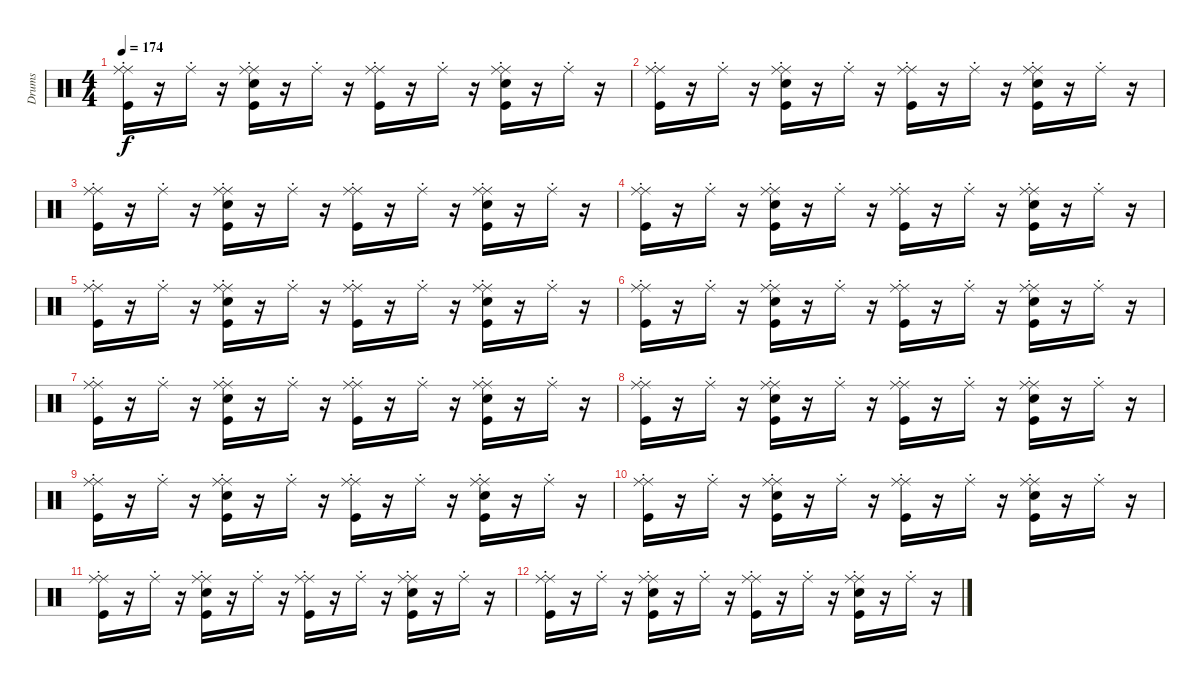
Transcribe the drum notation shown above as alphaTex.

\track ("Drums" "Drums") {instrument percussion}
\staff {score}
\articulation defaults
\ts (4 4)
\tempo 174
\clef neutral
\ks c
("Ride (middle)" "Kick (hit)" "Ride (choke)").16{dy f} r.16 "Ride (choke)".16 r.16 ("Ride (middle)" "Kick (hit)" "Snare (hit) 2" "Ride (choke)").16 r.16 "Ride (choke)".16 r.16 ("Ride (middle)" "Kick (hit)" "Ride (choke)").16 r.16 "Ride (choke)".16 r.16 ("Ride (middle)" "Kick (hit)" "Snare (hit) 2" "Ride (choke)").16 r.16 "Ride (choke)".16 r.16 |
("Ride (middle)" "Kick (hit)" "Ride (choke)").16 r.16 "Ride (choke)".16 r.16 ("Ride (middle)" "Kick (hit)" "Snare (hit) 2" "Ride (choke)").16 r.16 "Ride (choke)".16 r.16 ("Ride (middle)" "Kick (hit)" "Ride (choke)").16 r.16 "Ride (choke)".16 r.16 ("Ride (middle)" "Kick (hit)" "Snare (hit) 2" "Ride (choke)").16 r.16 "Ride (choke)".16 r.16 |
("Ride (middle)" "Kick (hit)" "Ride (choke)").16 r.16 "Ride (choke)".16 r.16 ("Ride (middle)" "Kick (hit)" "Snare (hit) 2" "Ride (choke)").16 r.16 "Ride (choke)".16 r.16 ("Ride (middle)" "Kick (hit)" "Ride (choke)").16 r.16 "Ride (choke)".16 r.16 ("Ride (middle)" "Kick (hit)" "Snare (hit) 2" "Ride (choke)").16 r.16 "Ride (choke)".16 r.16 |
("Ride (middle)" "Kick (hit)" "Ride (choke)").16 r.16 "Ride (choke)".16 r.16 ("Ride (middle)" "Kick (hit)" "Snare (hit) 2" "Ride (choke)").16 r.16 "Ride (choke)".16 r.16 ("Ride (middle)" "Kick (hit)" "Ride (choke)").16 r.16 "Ride (choke)".16 r.16 ("Ride (middle)" "Kick (hit)" "Snare (hit) 2" "Ride (choke)").16 r.16 "Ride (choke)".16 r.16 |
("Ride (middle)" "Kick (hit)" "Ride (choke)").16 r.16 "Ride (choke)".16 r.16 ("Ride (middle)" "Kick (hit)" "Snare (hit) 2" "Ride (choke)").16 r.16 "Ride (choke)".16 r.16 ("Ride (middle)" "Kick (hit)" "Ride (choke)").16 r.16 "Ride (choke)".16 r.16 ("Ride (middle)" "Kick (hit)" "Snare (hit) 2" "Ride (choke)").16 r.16 "Ride (choke)".16 r.16 |
("Ride (middle)" "Kick (hit)" "Ride (choke)").16 r.16 "Ride (choke)".16 r.16 ("Ride (middle)" "Kick (hit)" "Snare (hit) 2" "Ride (choke)").16 r.16 "Ride (choke)".16 r.16 ("Ride (middle)" "Kick (hit)" "Ride (choke)").16 r.16 "Ride (choke)".16 r.16 ("Ride (middle)" "Kick (hit)" "Snare (hit) 2" "Ride (choke)").16 r.16 "Ride (choke)".16 r.16 |
("Ride (middle)" "Kick (hit)" "Ride (choke)").16 r.16 "Ride (choke)".16 r.16 ("Ride (middle)" "Kick (hit)" "Snare (hit) 2" "Ride (choke)").16 r.16 "Ride (choke)".16 r.16 ("Ride (middle)" "Kick (hit)" "Ride (choke)").16 r.16 "Ride (choke)".16 r.16 ("Ride (middle)" "Kick (hit)" "Snare (hit) 2" "Ride (choke)").16 r.16 "Ride (choke)".16 r.16 |
("Ride (middle)" "Kick (hit)" "Ride (choke)").16 r.16 "Ride (choke)".16 r.16 ("Ride (middle)" "Kick (hit)" "Snare (hit) 2" "Ride (choke)").16 r.16 "Ride (choke)".16 r.16 ("Ride (middle)" "Kick (hit)" "Ride (choke)").16 r.16 "Ride (choke)".16 r.16 ("Ride (middle)" "Kick (hit)" "Snare (hit) 2" "Ride (choke)").16 r.16 "Ride (choke)".16 r.16 |
("Ride (middle)" "Kick (hit)" "Ride (choke)").16 r.16 "Ride (choke)".16 r.16 ("Ride (middle)" "Kick (hit)" "Snare (hit) 2" "Ride (choke)").16 r.16 "Ride (choke)".16 r.16 ("Ride (middle)" "Kick (hit)" "Ride (choke)").16 r.16 "Ride (choke)".16 r.16 ("Ride (middle)" "Kick (hit)" "Snare (hit) 2" "Ride (choke)").16 r.16 "Ride (choke)".16 r.16 |
("Ride (middle)" "Kick (hit)" "Ride (choke)").16 r.16 "Ride (choke)".16 r.16 ("Ride (middle)" "Kick (hit)" "Snare (hit) 2" "Ride (choke)").16 r.16 "Ride (choke)".16 r.16 ("Ride (middle)" "Kick (hit)" "Ride (choke)").16 r.16 "Ride (choke)".16 r.16 ("Ride (middle)" "Kick (hit)" "Snare (hit) 2" "Ride (choke)").16 r.16 "Ride (choke)".16 r.16 |
("Ride (middle)" "Kick (hit)" "Ride (choke)").16 r.16 "Ride (choke)".16 r.16 ("Ride (middle)" "Kick (hit)" "Snare (hit) 2" "Ride (choke)").16 r.16 "Ride (choke)".16 r.16 ("Ride (middle)" "Kick (hit)" "Ride (choke)").16 r.16 "Ride (choke)".16 r.16 ("Ride (middle)" "Kick (hit)" "Snare (hit) 2" "Ride (choke)").16 r.16 "Ride (choke)".16 r.16 |
("Ride (middle)" "Kick (hit)" "Ride (choke)").16 r.16 "Ride (choke)".16 r.16 ("Ride (middle)" "Kick (hit)" "Snare (hit) 2" "Ride (choke)").16 r.16 "Ride (choke)".16 r.16 ("Ride (middle)" "Kick (hit)" "Ride (choke)").16 r.16 "Ride (choke)".16 r.16 ("Ride (middle)" "Kick (hit)" "Snare (hit) 2" "Ride (choke)").16 r.16 "Ride (choke)".16 r.16
